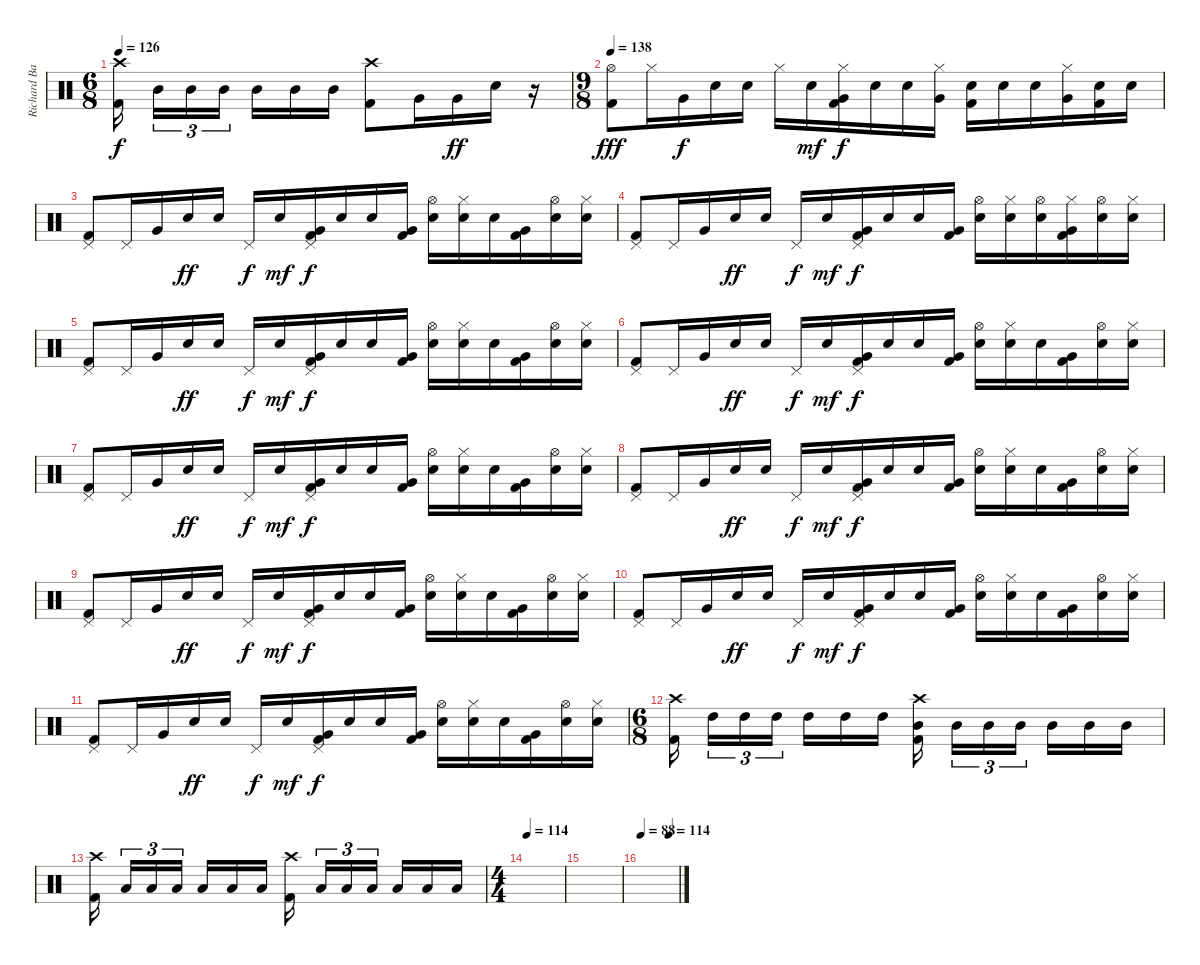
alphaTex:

\track ("Richard Bailey" "Richard Ba") {instrument percussion}
\staff {score}
\articulation defaults
\ts (6 8)
\tempo 126
\clef neutral
\ks c
("Crash high (hit)" "Kick (hit) 2").16{dy f} "Mid Tom (hit)".16{tu (3 2)} "Mid Tom (hit)".16{tu (3 2)} "Mid Tom (hit)".16{tu (3 2)} "Mid Tom (hit)".16 "Mid Tom (hit)".16 "Mid Tom (hit)".16 ("Crash high (hit)" "Kick (hit) 2").8 "Very Low Tom (hit)".16 "Very Low Tom (hit)".16{dy ff} "Snare (hit) 2".16 r.16 |
\ts (9 8)
\tempo 138
("Hi-Hat (open)" "Kick (hit) 2").8{dy fff} "Hi-Hat (closed)".16 "Very Low Tom (hit)".16{dy f} "Electric Snare (hit)".16 "Electric Snare (hit)".16 "Hi-Hat (closed)".16 "Snare (hit) 2".16{dy mf} ("Hi-Hat (closed)" "Very Low Tom (hit)" "Kick (hit) 2").16{dy f} "Snare (hit) 2".16 "Snare (hit) 2".16 ("Hi-Hat (closed)" "Very Low Tom (hit)").16 ("Snare (hit) 2" "Kick (hit) 2").16 "Snare (hit) 2".16 "Snare (hit) 2".16 ("Hi-Hat (closed)" "Very Low Tom (hit)").16 ("Electric Snare (hit)" "Kick (hit) 2").16 "Electric Snare (hit)".16 |
("Pedal Hi-Hat (hit)" "Kick (hit) 2").8 "Pedal Hi-Hat (hit)".16 "Very Low Tom (hit)".16 "Electric Snare (hit)".16{dy ff} "Electric Snare (hit)".16 "Pedal Hi-Hat (hit)".16{dy f} "Snare (hit) 2".16{dy mf} ("Pedal Hi-Hat (hit)" "Very Low Tom (hit)" "Kick (hit) 2").16{dy f} "Snare (hit) 2".16 "Snare (hit) 2".16 ("Very Low Tom (hit)" "Kick (hit) 2").16 ("Hi-Hat (open)" "Snare (hit) 2").16 ("Hi-Hat (closed)" "Snare (hit) 2").16 "Snare (hit) 2".16 ("Very Low Tom (hit)" "Kick (hit) 2").16 ("Hi-Hat (open)" "Electric Snare (hit)").16 ("Hi-Hat (closed)" "Electric Snare (hit)").16 |
("Pedal Hi-Hat (hit)" "Kick (hit) 2").8 "Pedal Hi-Hat (hit)".16 "Very Low Tom (hit)".16 "Electric Snare (hit)".16{dy ff} "Electric Snare (hit)".16 "Pedal Hi-Hat (hit)".16{dy f} "Snare (hit) 2".16{dy mf} ("Pedal Hi-Hat (hit)" "Very Low Tom (hit)" "Kick (hit) 2").16{dy f} "Snare (hit) 2".16 "Snare (hit) 2".16 ("Very Low Tom (hit)" "Kick (hit) 2").16 ("Hi-Hat (open)" "Snare (hit) 2").16 ("Hi-Hat (closed)" "Snare (hit) 2").16 ("Hi-Hat (open)" "Snare (hit) 2").16 ("Hi-Hat (closed)" "Very Low Tom (hit)" "Kick (hit) 2").16 ("Hi-Hat (open)" "Electric Snare (hit)").16 ("Hi-Hat (closed)" "Electric Snare (hit)").16 |
("Pedal Hi-Hat (hit)" "Kick (hit) 2").8 "Pedal Hi-Hat (hit)".16 "Very Low Tom (hit)".16 "Electric Snare (hit)".16{dy ff} "Electric Snare (hit)".16 "Pedal Hi-Hat (hit)".16{dy f} "Snare (hit) 2".16{dy mf} ("Pedal Hi-Hat (hit)" "Very Low Tom (hit)" "Kick (hit) 2").16{dy f} "Snare (hit) 2".16 "Snare (hit) 2".16 ("Very Low Tom (hit)" "Kick (hit) 2").16 ("Hi-Hat (open)" "Snare (hit) 2").16 ("Hi-Hat (closed)" "Snare (hit) 2").16 "Snare (hit) 2".16 ("Very Low Tom (hit)" "Kick (hit) 2").16 ("Hi-Hat (open)" "Electric Snare (hit)").16 ("Hi-Hat (closed)" "Electric Snare (hit)").16 |
("Pedal Hi-Hat (hit)" "Kick (hit) 2").8 "Pedal Hi-Hat (hit)".16 "Very Low Tom (hit)".16 "Electric Snare (hit)".16{dy ff} "Electric Snare (hit)".16 "Pedal Hi-Hat (hit)".16{dy f} "Snare (hit) 2".16{dy mf} ("Pedal Hi-Hat (hit)" "Very Low Tom (hit)" "Kick (hit) 2").16{dy f} "Snare (hit) 2".16 "Snare (hit) 2".16 ("Very Low Tom (hit)" "Kick (hit) 2").16 ("Hi-Hat (open)" "Snare (hit) 2").16 ("Hi-Hat (closed)" "Snare (hit) 2").16 "Snare (hit) 2".16 ("Very Low Tom (hit)" "Kick (hit) 2").16 ("Hi-Hat (open)" "Electric Snare (hit)").16 ("Hi-Hat (closed)" "Electric Snare (hit)").16 |
("Pedal Hi-Hat (hit)" "Kick (hit) 2").8 "Pedal Hi-Hat (hit)".16 "Very Low Tom (hit)".16 "Electric Snare (hit)".16{dy ff} "Electric Snare (hit)".16 "Pedal Hi-Hat (hit)".16{dy f} "Snare (hit) 2".16{dy mf} ("Pedal Hi-Hat (hit)" "Very Low Tom (hit)" "Kick (hit) 2").16{dy f} "Snare (hit) 2".16 "Snare (hit) 2".16 ("Very Low Tom (hit)" "Kick (hit) 2").16 ("Hi-Hat (open)" "Snare (hit) 2").16 ("Hi-Hat (closed)" "Snare (hit) 2").16 "Snare (hit) 2".16 ("Very Low Tom (hit)" "Kick (hit) 2").16 ("Hi-Hat (open)" "Electric Snare (hit)").16 ("Hi-Hat (closed)" "Electric Snare (hit)").16 |
("Pedal Hi-Hat (hit)" "Kick (hit) 2").8 "Pedal Hi-Hat (hit)".16 "Very Low Tom (hit)".16 "Electric Snare (hit)".16{dy ff} "Electric Snare (hit)".16 "Pedal Hi-Hat (hit)".16{dy f} "Snare (hit) 2".16{dy mf} ("Pedal Hi-Hat (hit)" "Very Low Tom (hit)" "Kick (hit) 2").16{dy f} "Snare (hit) 2".16 "Snare (hit) 2".16 ("Very Low Tom (hit)" "Kick (hit) 2").16 ("Hi-Hat (open)" "Snare (hit) 2").16 ("Hi-Hat (closed)" "Snare (hit) 2").16 "Snare (hit) 2".16 ("Very Low Tom (hit)" "Kick (hit) 2").16 ("Hi-Hat (open)" "Electric Snare (hit)").16 ("Hi-Hat (closed)" "Electric Snare (hit)").16 |
("Pedal Hi-Hat (hit)" "Kick (hit) 2").8 "Pedal Hi-Hat (hit)".16 "Very Low Tom (hit)".16 "Electric Snare (hit)".16{dy ff} "Electric Snare (hit)".16 "Pedal Hi-Hat (hit)".16{dy f} "Snare (hit) 2".16{dy mf} ("Pedal Hi-Hat (hit)" "Very Low Tom (hit)" "Kick (hit) 2").16{dy f} "Snare (hit) 2".16 "Snare (hit) 2".16 ("Very Low Tom (hit)" "Kick (hit) 2").16 ("Hi-Hat (open)" "Snare (hit) 2").16 ("Hi-Hat (closed)" "Snare (hit) 2").16 "Snare (hit) 2".16 ("Very Low Tom (hit)" "Kick (hit) 2").16 ("Hi-Hat (open)" "Electric Snare (hit)").16 ("Hi-Hat (closed)" "Electric Snare (hit)").16 |
("Pedal Hi-Hat (hit)" "Kick (hit) 2").8 "Pedal Hi-Hat (hit)".16 "Very Low Tom (hit)".16 "Electric Snare (hit)".16{dy ff} "Electric Snare (hit)".16 "Pedal Hi-Hat (hit)".16{dy f} "Snare (hit) 2".16{dy mf} ("Pedal Hi-Hat (hit)" "Very Low Tom (hit)" "Kick (hit) 2").16{dy f} "Snare (hit) 2".16 "Snare (hit) 2".16 ("Very Low Tom (hit)" "Kick (hit) 2").16 ("Hi-Hat (open)" "Snare (hit) 2").16 ("Hi-Hat (closed)" "Snare (hit) 2").16 "Snare (hit) 2".16 ("Very Low Tom (hit)" "Kick (hit) 2").16 ("Hi-Hat (open)" "Electric Snare (hit)").16 ("Hi-Hat (closed)" "Electric Snare (hit)").16 |
("Pedal Hi-Hat (hit)" "Kick (hit) 2").8 "Pedal Hi-Hat (hit)".16 "Very Low Tom (hit)".16 "Electric Snare (hit)".16{dy ff} "Electric Snare (hit)".16 "Pedal Hi-Hat (hit)".16{dy f} "Snare (hit) 2".16{dy mf} ("Pedal Hi-Hat (hit)" "Very Low Tom (hit)" "Kick (hit) 2").16{dy f} "Snare (hit) 2".16 "Snare (hit) 2".16 ("Very Low Tom (hit)" "Kick (hit) 2").16 ("Hi-Hat (open)" "Snare (hit) 2").16 ("Hi-Hat (closed)" "Snare (hit) 2").16 "Snare (hit) 2".16 ("Very Low Tom (hit)" "Kick (hit) 2").16 ("Hi-Hat (open)" "Electric Snare (hit)").16 ("Hi-Hat (closed)" "Electric Snare (hit)").16 |
\ts (6 8)
("Crash high (hit)" "Kick (hit) 2").16 "High Tom (hit)".16{tu (3 2)} "High Tom (hit)".16{tu (3 2)} "High Tom (hit)".16{tu (3 2)} "High Tom (hit)".16 "High Tom (hit)".16 "High Tom (hit)".16 ("Crash high (hit)" "Mid Tom (hit)" "Kick (hit) 2").16 "Mid Tom (hit)".16{tu (3 2)} "Mid Tom (hit)".16{tu (3 2)} "Mid Tom (hit)".16{tu (3 2)} "Mid Tom (hit)".16 "Mid Tom (hit)".16 "Mid Tom (hit)".16 |
("Crash high (hit)" "Kick (hit) 2").16 "Low Tom (hit)".16{tu (3 2)} "Low Tom (hit)".16{tu (3 2)} "Low Tom (hit)".16{tu (3 2)} "Low Tom (hit)".16 "Low Tom (hit)".16 "Low Tom (hit)".16 ("Crash high (hit)" "Kick (hit) 2").16 "Low Floor Tom (hit)".16{tu (3 2)} "Low Floor Tom (hit)".16{tu (3 2)} "Low Floor Tom (hit)".16{tu (3 2)} "Low Floor Tom (hit)".16 "Low Floor Tom (hit)".16 "Low Floor Tom (hit)".16 |
\ts (4 4)
\tempo 114
|
|
\tempo 88
\tempo (114 0.75)
